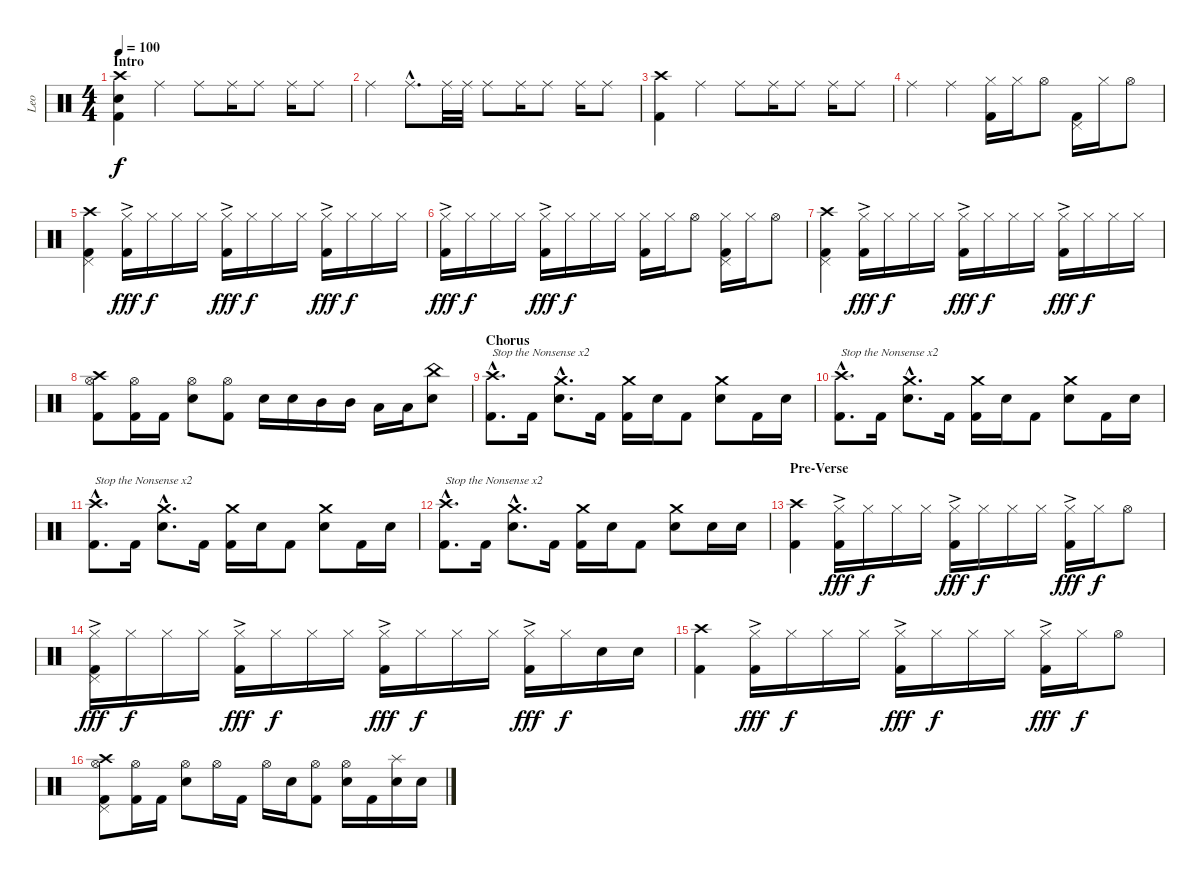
\track ("Leo" "Leo") {instrument percussion}
\staff {score}
\articulation defaults
\ts (4 4)
\section ("" "Intro")
\tempo 100
\clef neutral
\ks c
("Crash high (hit)" "Snare (hit)" "Kick (hit) 2").4{dy f} "Ride (middle)".4 "Ride (middle)".8 "Ride (middle)".16 "Ride (middle)".8 "Ride (middle)".16 "Ride (middle)".8 |
"Ride (middle)".4 "Ride (middle)"{hac}.8{d} "Ride (middle)".32 "Ride (middle)".32 "Ride (middle)".8 "Ride (middle)".16 "Ride (middle)".8 "Ride (middle)".16 "Ride (middle)".8 |
("Crash high (hit)" "Kick (hit) 2").4 "Ride (middle)".4 "Ride (middle)".8 "Ride (middle)".16 "Ride (middle)".8 "Ride (middle)".16 "Ride (middle)".8 |
"Ride (middle)".4 "Ride (middle)".4 ("Hi-Hat (closed)" "Kick (hit) 2").16 "Hi-Hat (closed)".16 "Hi-Hat (open)".8 ("Pedal Hi-Hat (hit)" "Kick (hit) 2").16 "Hi-Hat (closed)".16 "Hi-Hat (open)".8 |
("Crash high (hit)" "Pedal Hi-Hat (hit)" "Kick (hit) 2").4 ("Hi-Hat (closed)"{ac} "Kick (hit) 2").16{dy fff} "Hi-Hat (closed)".16{dy f} "Hi-Hat (closed)".16 "Hi-Hat (closed)".16 ("Hi-Hat (closed)"{ac} "Kick (hit) 2").16{dy fff} "Hi-Hat (closed)".16{dy f} "Hi-Hat (closed)".16 "Hi-Hat (closed)".16 ("Hi-Hat (closed)"{ac} "Kick (hit) 2").16{dy fff} "Hi-Hat (closed)".16{dy f} "Hi-Hat (closed)".16 "Hi-Hat (closed)".16 |
("Hi-Hat (closed)"{ac} "Kick (hit) 2").16{dy fff} "Hi-Hat (closed)".16{dy f} "Hi-Hat (closed)".16 "Hi-Hat (closed)".16 ("Hi-Hat (closed)"{ac} "Kick (hit) 2").16{dy fff} "Hi-Hat (closed)".16{dy f} "Hi-Hat (closed)".16 "Hi-Hat (closed)".16 ("Hi-Hat (closed)" "Kick (hit) 2").16 "Hi-Hat (closed)".16 "Hi-Hat (open)".8 ("Hi-Hat (closed)" "Pedal Hi-Hat (hit)" "Kick (hit) 2").16 "Hi-Hat (closed)".16 "Hi-Hat (open)".8 |
("Crash high (hit)" "Pedal Hi-Hat (hit)" "Kick (hit) 2").4 ("Hi-Hat (closed)"{ac} "Kick (hit) 2").16{dy fff} "Hi-Hat (closed)".16{dy f} "Hi-Hat (closed)".16 "Hi-Hat (closed)".16 ("Hi-Hat (closed)"{ac} "Kick (hit) 2").16{dy fff} "Hi-Hat (closed)".16{dy f} "Hi-Hat (closed)".16 "Hi-Hat (closed)".16 ("Hi-Hat (closed)"{ac} "Kick (hit) 2").16{dy fff} "Hi-Hat (closed)".16{dy f} "Hi-Hat (closed)".16 "Hi-Hat (closed)".16 |
("Hi-Hat (open)" "Crash high (hit)" "Kick (hit) 2").8 ("Hi-Hat (open)" "Kick (hit) 2").16 "Kick (hit) 2".16 ("Hi-Hat (open)" "Electric Snare (hit)").8 ("Hi-Hat (open)" "Kick (hit) 2").8 "Electric Snare (hit)".16 "Electric Snare (hit)".16 "Mid Tom (hit)".16 "Mid Tom (hit)".16 "Low Tom (hit)".16 "Low Tom (hit)".16 ("China (hit)" "Electric Snare (hit)").8 |
\section ("" "Chorus")
("Crash high (hit)"{hac} "Kick (hit) 2"{hac}).8{d txt "Stop the Nonsense x2"} "Kick (hit) 2".16 ("Crash medium (hit)"{hac} "Electric Snare (hit)"{hac}).8{d} "Kick (hit) 2".16 ("Crash medium (hit)" "Kick (hit) 2").16 "Electric Snare (hit)".16 "Kick (hit) 2".8 ("Crash medium (hit)" "Electric Snare (hit)").8 "Kick (hit) 2".16 "Electric Snare (hit)".16 |
("Crash high (hit)"{hac} "Kick (hit) 2"{hac}).8{d txt "Stop the Nonsense x2"} "Kick (hit) 2".16 ("Crash medium (hit)"{hac} "Electric Snare (hit)"{hac}).8{d} "Kick (hit) 2".16 ("Crash medium (hit)" "Kick (hit) 2").16 "Electric Snare (hit)".16 "Kick (hit) 2".8 ("Crash medium (hit)" "Electric Snare (hit)").8 "Kick (hit) 2".16 "Electric Snare (hit)".16 |
("Crash high (hit)"{hac} "Kick (hit) 2"{hac}).8{d txt "Stop the Nonsense x2"} "Kick (hit) 2".16 ("Crash medium (hit)"{hac} "Electric Snare (hit)"{hac}).8{d} "Kick (hit) 2".16 ("Crash medium (hit)" "Kick (hit) 2").16 "Electric Snare (hit)".16 "Kick (hit) 2".8 ("Crash medium (hit)" "Electric Snare (hit)").8 "Kick (hit) 2".16 "Electric Snare (hit)".16 |
("Crash high (hit)"{hac} "Kick (hit) 2"{hac}).8{d txt "Stop the Nonsense x2"} "Kick (hit) 2".16 ("Crash medium (hit)"{hac} "Electric Snare (hit)"{hac}).8{d} "Kick (hit) 2".16 ("Crash medium (hit)" "Kick (hit) 2").16 "Electric Snare (hit)".16 "Kick (hit) 2".8 ("Crash medium (hit)" "Electric Snare (hit)").8 "Electric Snare (hit)".16 "Electric Snare (hit)".16 |
\section ("" "Pre-Verse")
("Crash high (hit)" "Kick (hit) 2").4 ("Hi-Hat (closed)"{ac} "Kick (hit) 2").16{dy fff} "Hi-Hat (closed)".16{dy f} "Hi-Hat (closed)".16 "Hi-Hat (closed)".16 ("Hi-Hat (closed)"{ac} "Kick (hit) 2").16{dy fff} "Hi-Hat (closed)".16{dy f} "Hi-Hat (closed)".16 "Hi-Hat (closed)".16 ("Hi-Hat (closed)"{ac} "Kick (hit) 2").16{dy fff} "Hi-Hat (closed)".16{dy f} "Hi-Hat (open)".8 |
("Hi-Hat (closed)"{ac} "Pedal Hi-Hat (hit)" "Kick (hit) 2").16{dy fff} "Hi-Hat (closed)".16{dy f} "Hi-Hat (closed)".16 "Hi-Hat (closed)".16 ("Hi-Hat (closed)"{ac} "Kick (hit) 2").16{dy fff} "Hi-Hat (closed)".16{dy f} "Hi-Hat (closed)".16 "Hi-Hat (closed)".16 ("Hi-Hat (closed)"{ac} "Kick (hit) 2").16{dy fff} "Hi-Hat (closed)".16{dy f} "Hi-Hat (closed)".16 "Hi-Hat (closed)".16 ("Hi-Hat (closed)"{ac} "Kick (hit) 2").16{dy fff} "Hi-Hat (closed)".16{dy f} "Electric Snare (hit)".16 "Electric Snare (hit)".16 |
("Crash high (hit)" "Kick (hit) 2").4 ("Hi-Hat (closed)"{ac} "Kick (hit) 2").16{dy fff} "Hi-Hat (closed)".16{dy f} "Hi-Hat (closed)".16 "Hi-Hat (closed)".16 ("Hi-Hat (closed)"{ac} "Kick (hit) 2").16{dy fff} "Hi-Hat (closed)".16{dy f} "Hi-Hat (closed)".16 "Hi-Hat (closed)".16 ("Hi-Hat (closed)"{ac} "Kick (hit) 2").16{dy fff} "Hi-Hat (closed)".16{dy f} "Hi-Hat (open)".8 |
("Hi-Hat (open)" "Crash high (hit)" "Pedal Hi-Hat (hit)" "Kick (hit) 2").8 ("Hi-Hat (open)" "Kick (hit) 2").16 "Kick (hit) 2".16 ("Hi-Hat (open)" "Electric Snare (hit)").8 "Hi-Hat (open)".16 "Kick (hit) 2".16 "Hi-Hat (open)".16 "Electric Snare (hit)".16 ("Hi-Hat (open)" "Kick (hit) 2").8 ("Hi-Hat (open)" "Electric Snare (hit)").16 "Kick (hit) 2".16 ("Splash (hit)" "Electric Snare (hit)").16 "Electric Snare (hit)".16
